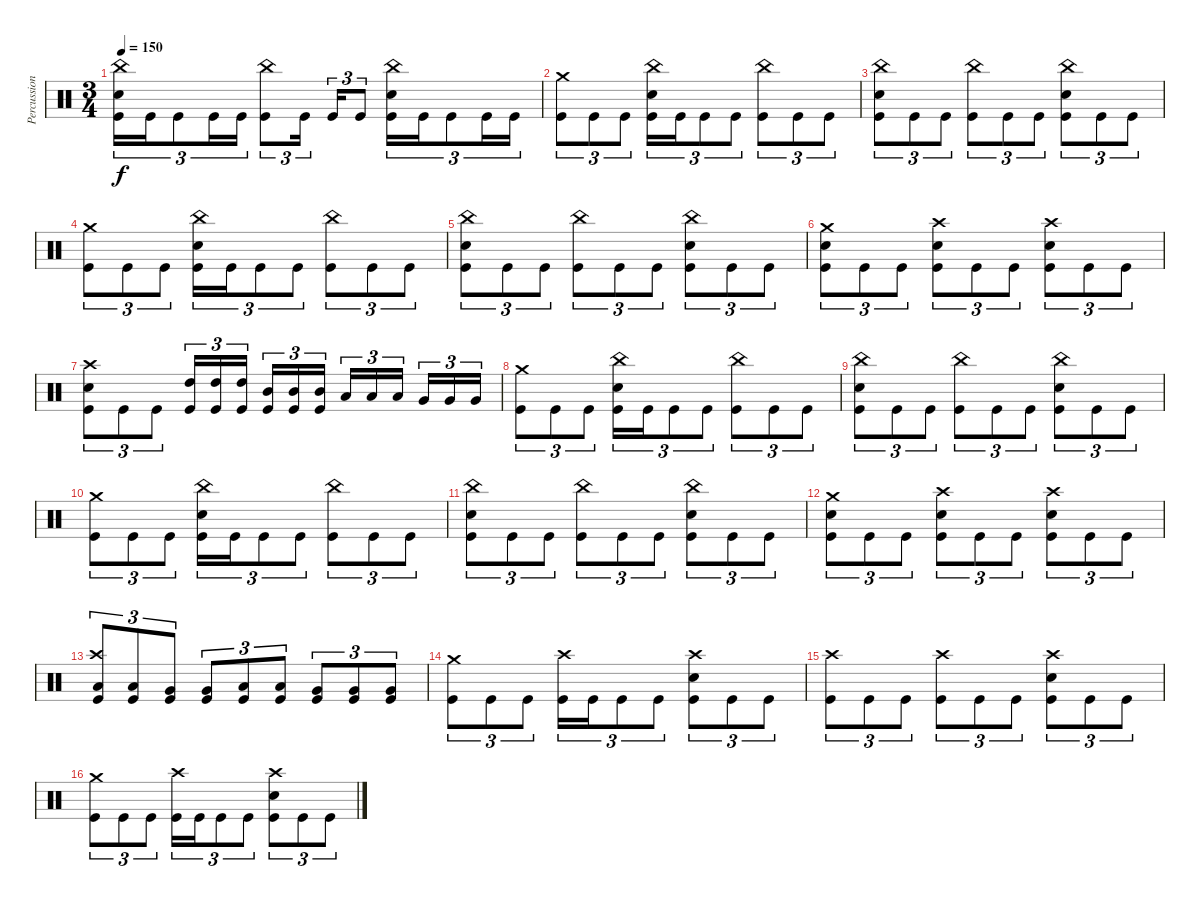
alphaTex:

\track ("Percussions" "Percussion") {instrument percussion}
\staff {score}
\articulation defaults
\ts (3 4)
\tempo 150
\clef neutral
\ks c
("China (hit)" "Snare (hit) 2" "Kick (hit)").16{tu (3 2) dy f} "Kick (hit)".16{tu (3 2)} "Kick (hit)".8{tu (3 2)} "Kick (hit)".16{tu (3 2)} "Kick (hit)".16{tu (3 2)} ("China (hit)" "Kick (hit)").8{tu (3 2)} "Kick (hit)".16{tu (3 2)} "Kick (hit)".16{tu (3 2)} "Kick (hit)".8{tu (3 2)} ("China (hit)" "Snare (hit) 2" "Kick (hit)").16{tu (3 2)} "Kick (hit)".16{tu (3 2)} "Kick (hit)".8{tu (3 2)} "Kick (hit)".16{tu (3 2)} "Kick (hit)".16{tu (3 2)} |
("Crash medium (hit)" "Kick (hit)").8{tu (3 2)} "Kick (hit)".8{tu (3 2)} "Kick (hit)".8{tu (3 2)} ("China (hit)" "Snare (hit) 2" "Kick (hit)").16{tu (3 2)} "Kick (hit)".16{tu (3 2)} "Kick (hit)".8{tu (3 2)} "Kick (hit)".8{tu (3 2)} ("China (hit)" "Kick (hit)").8{tu (3 2)} "Kick (hit)".8{tu (3 2)} "Kick (hit)".8{tu (3 2)} |
("China (hit)" "Snare (hit) 2" "Kick (hit)").8{tu (3 2)} "Kick (hit)".8{tu (3 2)} "Kick (hit)".8{tu (3 2)} ("China (hit)" "Kick (hit)").8{tu (3 2)} "Kick (hit)".8{tu (3 2)} "Kick (hit)".8{tu (3 2)} ("China (hit)" "Snare (hit) 2" "Kick (hit)").8{tu (3 2)} "Kick (hit)".8{tu (3 2)} "Kick (hit)".8{tu (3 2)} |
("Crash medium (hit)" "Kick (hit)").8{tu (3 2)} "Kick (hit)".8{tu (3 2)} "Kick (hit)".8{tu (3 2)} ("China (hit)" "Snare (hit) 2" "Kick (hit)").16{tu (3 2)} "Kick (hit)".16{tu (3 2)} "Kick (hit)".8{tu (3 2)} "Kick (hit)".8{tu (3 2)} ("China (hit)" "Kick (hit)").8{tu (3 2)} "Kick (hit)".8{tu (3 2)} "Kick (hit)".8{tu (3 2)} |
("China (hit)" "Snare (hit) 2" "Kick (hit)").8{tu (3 2)} "Kick (hit)".8{tu (3 2)} "Kick (hit)".8{tu (3 2)} ("China (hit)" "Kick (hit)").8{tu (3 2)} "Kick (hit)".8{tu (3 2)} "Kick (hit)".8{tu (3 2)} ("China (hit)" "Snare (hit) 2" "Kick (hit)").8{tu (3 2)} "Kick (hit)".8{tu (3 2)} "Kick (hit)".8{tu (3 2)} |
("Crash medium (hit)" "Snare (hit) 2" "Kick (hit)").8{tu (3 2)} "Kick (hit)".8{tu (3 2)} "Kick (hit)".8{tu (3 2)} ("Crash high (hit)" "Snare (hit) 2" "Kick (hit)").8{tu (3 2)} "Kick (hit)".8{tu (3 2)} "Kick (hit)".8{tu (3 2)} ("Crash high (hit)" "Snare (hit) 2" "Kick (hit)").8{tu (3 2)} "Kick (hit)".8{tu (3 2)} "Kick (hit)".8{tu (3 2)} |
("Crash high (hit)" "Snare (hit) 2" "Kick (hit)").8{tu (3 2)} "Kick (hit)".8{tu (3 2)} "Kick (hit)".8{tu (3 2)} ("High Tom (hit)" "Kick (hit)").16{tu (3 2)} ("High Tom (hit)" "Kick (hit)").16{tu (3 2)} ("High Tom (hit)" "Kick (hit)").16{tu (3 2)} ("Mid Tom (hit)" "Kick (hit)").16{tu (3 2)} ("Mid Tom (hit)" "Kick (hit)").16{tu (3 2)} ("Mid Tom (hit)" "Kick (hit)").16{tu (3 2)} "Low Tom (hit)".16{tu (3 2)} "Low Tom (hit)".16{tu (3 2)} "Low Tom (hit)".16{tu (3 2)} "Very Low Tom (hit)".16{tu (3 2)} "Very Low Tom (hit)".16{tu (3 2)} "Very Low Tom (hit)".16{tu (3 2)} |
("Crash medium (hit)" "Kick (hit)").8{tu (3 2)} "Kick (hit)".8{tu (3 2)} "Kick (hit)".8{tu (3 2)} ("China (hit)" "Snare (hit) 2" "Kick (hit)").16{tu (3 2)} "Kick (hit)".16{tu (3 2)} "Kick (hit)".8{tu (3 2)} "Kick (hit)".8{tu (3 2)} ("China (hit)" "Kick (hit)").8{tu (3 2)} "Kick (hit)".8{tu (3 2)} "Kick (hit)".8{tu (3 2)} |
("China (hit)" "Snare (hit) 2" "Kick (hit)").8{tu (3 2)} "Kick (hit)".8{tu (3 2)} "Kick (hit)".8{tu (3 2)} ("China (hit)" "Kick (hit)").8{tu (3 2)} "Kick (hit)".8{tu (3 2)} "Kick (hit)".8{tu (3 2)} ("China (hit)" "Snare (hit) 2" "Kick (hit)").8{tu (3 2)} "Kick (hit)".8{tu (3 2)} "Kick (hit)".8{tu (3 2)} |
("Crash medium (hit)" "Kick (hit)").8{tu (3 2)} "Kick (hit)".8{tu (3 2)} "Kick (hit)".8{tu (3 2)} ("China (hit)" "Snare (hit) 2" "Kick (hit)").16{tu (3 2)} "Kick (hit)".16{tu (3 2)} "Kick (hit)".8{tu (3 2)} "Kick (hit)".8{tu (3 2)} ("China (hit)" "Kick (hit)").8{tu (3 2)} "Kick (hit)".8{tu (3 2)} "Kick (hit)".8{tu (3 2)} |
("China (hit)" "Snare (hit) 2" "Kick (hit)").8{tu (3 2)} "Kick (hit)".8{tu (3 2)} "Kick (hit)".8{tu (3 2)} ("China (hit)" "Kick (hit)").8{tu (3 2)} "Kick (hit)".8{tu (3 2)} "Kick (hit)".8{tu (3 2)} ("China (hit)" "Snare (hit) 2" "Kick (hit)").8{tu (3 2)} "Kick (hit)".8{tu (3 2)} "Kick (hit)".8{tu (3 2)} |
("Crash medium (hit)" "Snare (hit) 2" "Kick (hit)").8{tu (3 2)} "Kick (hit)".8{tu (3 2)} "Kick (hit)".8{tu (3 2)} ("Crash high (hit)" "Snare (hit) 2" "Kick (hit)").8{tu (3 2)} "Kick (hit)".8{tu (3 2)} "Kick (hit)".8{tu (3 2)} ("Crash high (hit)" "Snare (hit) 2" "Kick (hit)").8{tu (3 2)} "Kick (hit)".8{tu (3 2)} "Kick (hit)".8{tu (3 2)} |
("Crash high (hit)" "Low Tom (hit)" "Kick (hit)").8{tu (3 2)} ("Low Tom (hit)" "Kick (hit)").8{tu (3 2)} ("Very Low Tom (hit)" "Kick (hit)").8{tu (3 2)} ("Very Low Tom (hit)" "Kick (hit)").8{tu (3 2)} ("Low Tom (hit)" "Kick (hit)").8{tu (3 2)} ("Low Tom (hit)" "Kick (hit)").8{tu (3 2)} ("Very Low Tom (hit)" "Kick (hit)").8{tu (3 2)} ("Very Low Tom (hit)" "Kick (hit)").8{tu (3 2)} ("Very Low Tom (hit)" "Kick (hit)").8{tu (3 2)} |
("Crash medium (hit)" "Kick (hit)").8{tu (3 2)} "Kick (hit)".8{tu (3 2)} "Kick (hit)".8{tu (3 2)} ("Crash high (hit)" "Kick (hit)").16{tu (3 2)} "Kick (hit)".16{tu (3 2)} "Kick (hit)".8{tu (3 2)} "Kick (hit)".8{tu (3 2)} ("Crash high (hit)" "Snare (hit) 2" "Kick (hit)").8{tu (3 2)} "Kick (hit)".8{tu (3 2)} "Kick (hit)".8{tu (3 2)} |
("Crash high (hit)" "Kick (hit)").8{tu (3 2)} "Kick (hit)".8{tu (3 2)} "Kick (hit)".8{tu (3 2)} ("Crash high (hit)" "Kick (hit)").8{tu (3 2)} "Kick (hit)".8{tu (3 2)} "Kick (hit)".8{tu (3 2)} ("Crash high (hit)" "Snare (hit) 2" "Kick (hit)").8{tu (3 2)} "Kick (hit)".8{tu (3 2)} "Kick (hit)".8{tu (3 2)} |
("Crash medium (hit)" "Kick (hit)").8{tu (3 2)} "Kick (hit)".8{tu (3 2)} "Kick (hit)".8{tu (3 2)} ("Crash high (hit)" "Kick (hit)").16{tu (3 2)} "Kick (hit)".16{tu (3 2)} "Kick (hit)".8{tu (3 2)} "Kick (hit)".8{tu (3 2)} ("Crash high (hit)" "Snare (hit) 2" "Kick (hit)").8{tu (3 2)} "Kick (hit)".8{tu (3 2)} "Kick (hit)".8{tu (3 2)}
